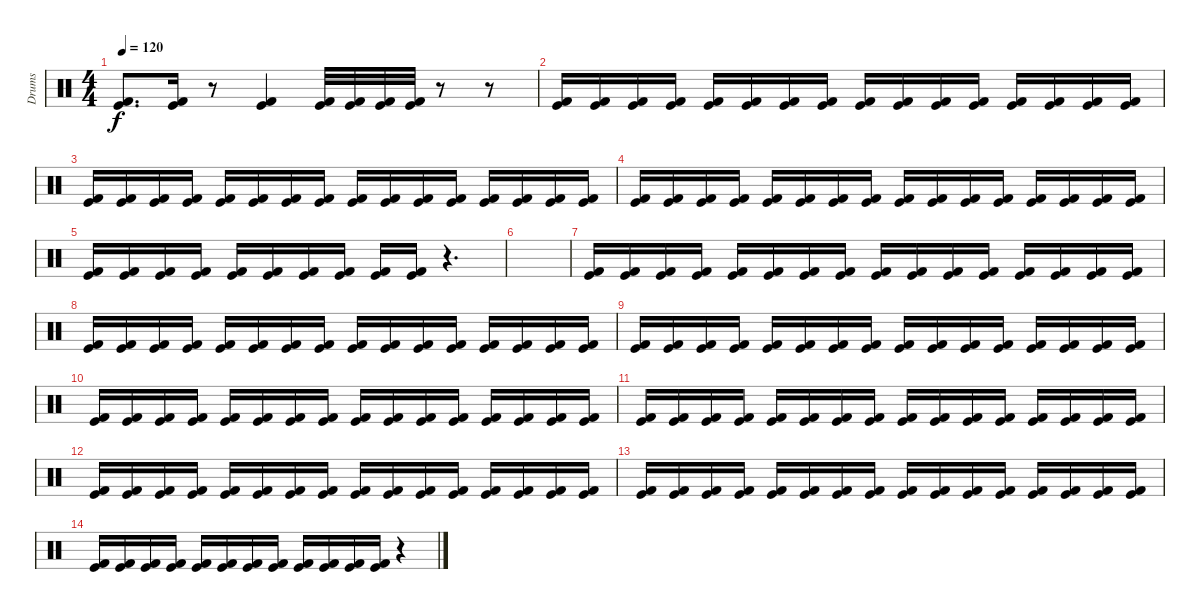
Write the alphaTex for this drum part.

\track ("Drums" "Drums") {instrument percussion}
\staff {score}
\articulation defaults
\ts (4 4)
\tempo 120
\clef neutral
\ks c
("Kick (hit) 2" "Kick (hit)").8{d dy f} ("Kick (hit) 2" "Kick (hit)").16 r.8 ("Kick (hit) 2" "Kick (hit)").4 ("Kick (hit) 2" "Kick (hit)").32 ("Kick (hit) 2" "Kick (hit)").32 ("Kick (hit) 2" "Kick (hit)").32 ("Kick (hit) 2" "Kick (hit)").32 r.8 r.8 |
("Kick (hit) 2" "Kick (hit)").16 ("Kick (hit) 2" "Kick (hit)").16 ("Kick (hit) 2" "Kick (hit)").16 ("Kick (hit) 2" "Kick (hit)").16 ("Kick (hit) 2" "Kick (hit)").16 ("Kick (hit) 2" "Kick (hit)").16 ("Kick (hit) 2" "Kick (hit)").16 ("Kick (hit) 2" "Kick (hit)").16 ("Kick (hit) 2" "Kick (hit)").16 ("Kick (hit) 2" "Kick (hit)").16 ("Kick (hit) 2" "Kick (hit)").16 ("Kick (hit) 2" "Kick (hit)").16 ("Kick (hit) 2" "Kick (hit)").16 ("Kick (hit) 2" "Kick (hit)").16 ("Kick (hit) 2" "Kick (hit)").16 ("Kick (hit) 2" "Kick (hit)").16 |
("Kick (hit) 2" "Kick (hit)").16 ("Kick (hit) 2" "Kick (hit)").16 ("Kick (hit) 2" "Kick (hit)").16 ("Kick (hit) 2" "Kick (hit)").16 ("Kick (hit) 2" "Kick (hit)").16 ("Kick (hit) 2" "Kick (hit)").16 ("Kick (hit) 2" "Kick (hit)").16 ("Kick (hit) 2" "Kick (hit)").16 ("Kick (hit) 2" "Kick (hit)").16 ("Kick (hit) 2" "Kick (hit)").16 ("Kick (hit) 2" "Kick (hit)").16 ("Kick (hit) 2" "Kick (hit)").16 ("Kick (hit) 2" "Kick (hit)").16 ("Kick (hit) 2" "Kick (hit)").16 ("Kick (hit) 2" "Kick (hit)").16 ("Kick (hit) 2" "Kick (hit)").16 |
("Kick (hit) 2" "Kick (hit)").16 ("Kick (hit) 2" "Kick (hit)").16 ("Kick (hit) 2" "Kick (hit)").16 ("Kick (hit) 2" "Kick (hit)").16 ("Kick (hit) 2" "Kick (hit)").16 ("Kick (hit) 2" "Kick (hit)").16 ("Kick (hit) 2" "Kick (hit)").16 ("Kick (hit) 2" "Kick (hit)").16 ("Kick (hit) 2" "Kick (hit)").16 ("Kick (hit) 2" "Kick (hit)").16 ("Kick (hit) 2" "Kick (hit)").16 ("Kick (hit) 2" "Kick (hit)").16 ("Kick (hit) 2" "Kick (hit)").16 ("Kick (hit) 2" "Kick (hit)").16 ("Kick (hit) 2" "Kick (hit)").16 ("Kick (hit) 2" "Kick (hit)").16 |
("Kick (hit) 2" "Kick (hit)").16 ("Kick (hit) 2" "Kick (hit)").16 ("Kick (hit) 2" "Kick (hit)").16 ("Kick (hit) 2" "Kick (hit)").16 ("Kick (hit) 2" "Kick (hit)").16 ("Kick (hit) 2" "Kick (hit)").16 ("Kick (hit) 2" "Kick (hit)").16 ("Kick (hit) 2" "Kick (hit)").16 ("Kick (hit) 2" "Kick (hit)").16 ("Kick (hit) 2" "Kick (hit)").16 r.4{d} |
|
("Kick (hit) 2" "Kick (hit)").16 ("Kick (hit) 2" "Kick (hit)").16 ("Kick (hit) 2" "Kick (hit)").16 ("Kick (hit) 2" "Kick (hit)").16 ("Kick (hit) 2" "Kick (hit)").16 ("Kick (hit) 2" "Kick (hit)").16 ("Kick (hit) 2" "Kick (hit)").16 ("Kick (hit) 2" "Kick (hit)").16 ("Kick (hit) 2" "Kick (hit)").16 ("Kick (hit) 2" "Kick (hit)").16 ("Kick (hit) 2" "Kick (hit)").16 ("Kick (hit) 2" "Kick (hit)").16 ("Kick (hit) 2" "Kick (hit)").16 ("Kick (hit) 2" "Kick (hit)").16 ("Kick (hit) 2" "Kick (hit)").16 ("Kick (hit) 2" "Kick (hit)").16 |
("Kick (hit) 2" "Kick (hit)").16 ("Kick (hit) 2" "Kick (hit)").16 ("Kick (hit) 2" "Kick (hit)").16 ("Kick (hit) 2" "Kick (hit)").16 ("Kick (hit) 2" "Kick (hit)").16 ("Kick (hit) 2" "Kick (hit)").16 ("Kick (hit) 2" "Kick (hit)").16 ("Kick (hit) 2" "Kick (hit)").16 ("Kick (hit) 2" "Kick (hit)").16 ("Kick (hit) 2" "Kick (hit)").16 ("Kick (hit) 2" "Kick (hit)").16 ("Kick (hit) 2" "Kick (hit)").16 ("Kick (hit) 2" "Kick (hit)").16 ("Kick (hit) 2" "Kick (hit)").16 ("Kick (hit) 2" "Kick (hit)").16 ("Kick (hit) 2" "Kick (hit)").16 |
("Kick (hit) 2" "Kick (hit)").16 ("Kick (hit) 2" "Kick (hit)").16 ("Kick (hit) 2" "Kick (hit)").16 ("Kick (hit) 2" "Kick (hit)").16 ("Kick (hit) 2" "Kick (hit)").16 ("Kick (hit) 2" "Kick (hit)").16 ("Kick (hit) 2" "Kick (hit)").16 ("Kick (hit) 2" "Kick (hit)").16 ("Kick (hit) 2" "Kick (hit)").16 ("Kick (hit) 2" "Kick (hit)").16 ("Kick (hit) 2" "Kick (hit)").16 ("Kick (hit) 2" "Kick (hit)").16 ("Kick (hit) 2" "Kick (hit)").16 ("Kick (hit) 2" "Kick (hit)").16 ("Kick (hit) 2" "Kick (hit)").16 ("Kick (hit) 2" "Kick (hit)").16 |
("Kick (hit) 2" "Kick (hit)").16 ("Kick (hit) 2" "Kick (hit)").16 ("Kick (hit) 2" "Kick (hit)").16 ("Kick (hit) 2" "Kick (hit)").16 ("Kick (hit) 2" "Kick (hit)").16 ("Kick (hit) 2" "Kick (hit)").16 ("Kick (hit) 2" "Kick (hit)").16 ("Kick (hit) 2" "Kick (hit)").16 ("Kick (hit) 2" "Kick (hit)").16 ("Kick (hit) 2" "Kick (hit)").16 ("Kick (hit) 2" "Kick (hit)").16 ("Kick (hit) 2" "Kick (hit)").16 ("Kick (hit) 2" "Kick (hit)").16 ("Kick (hit) 2" "Kick (hit)").16 ("Kick (hit) 2" "Kick (hit)").16 ("Kick (hit) 2" "Kick (hit)").16 |
("Kick (hit) 2" "Kick (hit)").16 ("Kick (hit) 2" "Kick (hit)").16 ("Kick (hit) 2" "Kick (hit)").16 ("Kick (hit) 2" "Kick (hit)").16 ("Kick (hit) 2" "Kick (hit)").16 ("Kick (hit) 2" "Kick (hit)").16 ("Kick (hit) 2" "Kick (hit)").16 ("Kick (hit) 2" "Kick (hit)").16 ("Kick (hit) 2" "Kick (hit)").16 ("Kick (hit) 2" "Kick (hit)").16 ("Kick (hit) 2" "Kick (hit)").16 ("Kick (hit) 2" "Kick (hit)").16 ("Kick (hit) 2" "Kick (hit)").16 ("Kick (hit) 2" "Kick (hit)").16 ("Kick (hit) 2" "Kick (hit)").16 ("Kick (hit) 2" "Kick (hit)").16 |
("Kick (hit) 2" "Kick (hit)").16 ("Kick (hit) 2" "Kick (hit)").16 ("Kick (hit) 2" "Kick (hit)").16 ("Kick (hit) 2" "Kick (hit)").16 ("Kick (hit) 2" "Kick (hit)").16 ("Kick (hit) 2" "Kick (hit)").16 ("Kick (hit) 2" "Kick (hit)").16 ("Kick (hit) 2" "Kick (hit)").16 ("Kick (hit) 2" "Kick (hit)").16 ("Kick (hit) 2" "Kick (hit)").16 ("Kick (hit) 2" "Kick (hit)").16 ("Kick (hit) 2" "Kick (hit)").16 ("Kick (hit) 2" "Kick (hit)").16 ("Kick (hit) 2" "Kick (hit)").16 ("Kick (hit) 2" "Kick (hit)").16 ("Kick (hit) 2" "Kick (hit)").16 |
("Kick (hit) 2" "Kick (hit)").16 ("Kick (hit) 2" "Kick (hit)").16 ("Kick (hit) 2" "Kick (hit)").16 ("Kick (hit) 2" "Kick (hit)").16 ("Kick (hit) 2" "Kick (hit)").16 ("Kick (hit) 2" "Kick (hit)").16 ("Kick (hit) 2" "Kick (hit)").16 ("Kick (hit) 2" "Kick (hit)").16 ("Kick (hit) 2" "Kick (hit)").16 ("Kick (hit) 2" "Kick (hit)").16 ("Kick (hit) 2" "Kick (hit)").16 ("Kick (hit) 2" "Kick (hit)").16 ("Kick (hit) 2" "Kick (hit)").16 ("Kick (hit) 2" "Kick (hit)").16 ("Kick (hit) 2" "Kick (hit)").16 ("Kick (hit) 2" "Kick (hit)").16 |
("Kick (hit) 2" "Kick (hit)").16 ("Kick (hit) 2" "Kick (hit)").16 ("Kick (hit) 2" "Kick (hit)").16 ("Kick (hit) 2" "Kick (hit)").16 ("Kick (hit) 2" "Kick (hit)").16 ("Kick (hit) 2" "Kick (hit)").16 ("Kick (hit) 2" "Kick (hit)").16 ("Kick (hit) 2" "Kick (hit)").16 ("Kick (hit) 2" "Kick (hit)").16 ("Kick (hit) 2" "Kick (hit)").16 ("Kick (hit) 2" "Kick (hit)").16 ("Kick (hit) 2" "Kick (hit)").16 r.4
